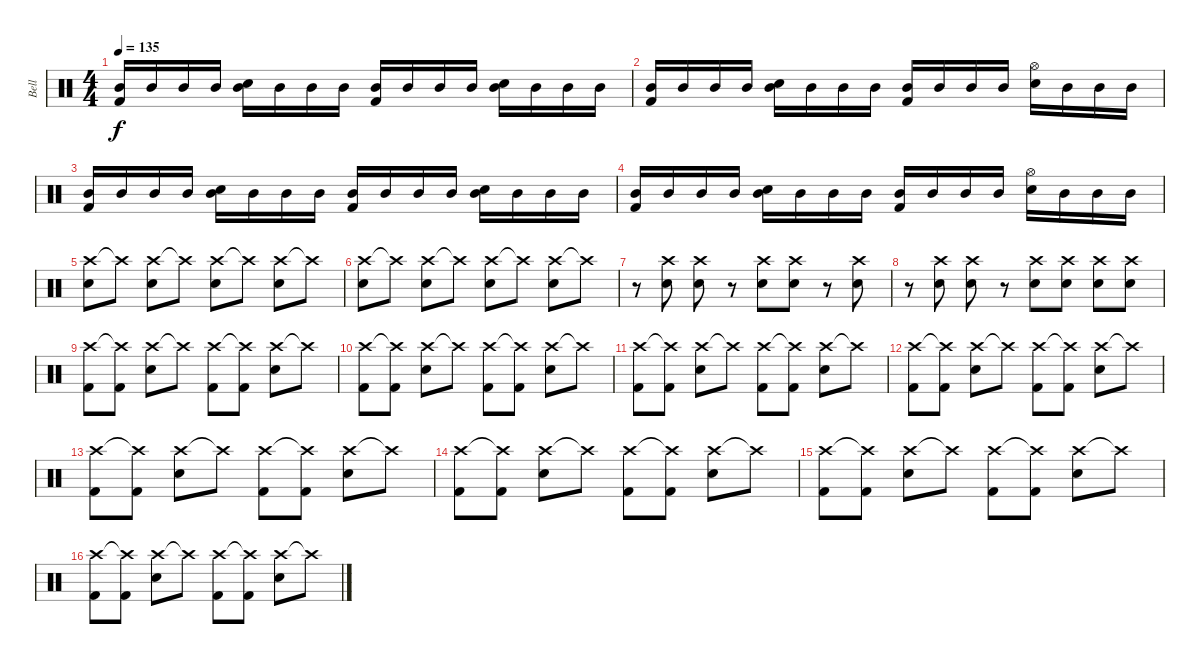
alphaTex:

\track ("Bell" "Bell") {instrument percussion}
\staff {score}
\articulation defaults
\ts (4 4)
\tempo 135
\clef neutral
\ks c
("Mid Tom (hit)" "Kick (hit) 2").16{dy f} "Mid Tom (hit)".16 "Mid Tom (hit)".16 "Mid Tom (hit)".16 ("Mid Tom (hit)" "Snare (hit) 2").16 "Mid Tom (hit)".16 "Mid Tom (hit)".16 "Mid Tom (hit)".16 ("Mid Tom (hit)" "Kick (hit) 2").16 "Mid Tom (hit)".16 "Mid Tom (hit)".16 "Mid Tom (hit)".16 ("Mid Tom (hit)" "Snare (hit) 2").16 "Mid Tom (hit)".16 "Mid Tom (hit)".16 "Mid Tom (hit)".16 |
("Mid Tom (hit)" "Kick (hit) 2").16 "Mid Tom (hit)".16 "Mid Tom (hit)".16 "Mid Tom (hit)".16 ("Mid Tom (hit)" "Snare (hit) 2").16 "Mid Tom (hit)".16 "Mid Tom (hit)".16 "Mid Tom (hit)".16 ("Mid Tom (hit)" "Kick (hit) 2").16 "Mid Tom (hit)".16 "Mid Tom (hit)".16 "Mid Tom (hit)".16 ("Hi-Hat (open)" "Snare (hit) 2").16 "Mid Tom (hit)".16 "Mid Tom (hit)".16 "Mid Tom (hit)".16 |
("Mid Tom (hit)" "Kick (hit) 2").16 "Mid Tom (hit)".16 "Mid Tom (hit)".16 "Mid Tom (hit)".16 ("Mid Tom (hit)" "Snare (hit) 2").16 "Mid Tom (hit)".16 "Mid Tom (hit)".16 "Mid Tom (hit)".16 ("Mid Tom (hit)" "Kick (hit) 2").16 "Mid Tom (hit)".16 "Mid Tom (hit)".16 "Mid Tom (hit)".16 ("Mid Tom (hit)" "Snare (hit) 2").16 "Mid Tom (hit)".16 "Mid Tom (hit)".16 "Mid Tom (hit)".16 |
("Mid Tom (hit)" "Kick (hit) 2").16 "Mid Tom (hit)".16 "Mid Tom (hit)".16 "Mid Tom (hit)".16 ("Mid Tom (hit)" "Snare (hit) 2").16 "Mid Tom (hit)".16 "Mid Tom (hit)".16 "Mid Tom (hit)".16 ("Mid Tom (hit)" "Kick (hit) 2").16 "Mid Tom (hit)".16 "Mid Tom (hit)".16 "Mid Tom (hit)".16 ("Hi-Hat (open)" "Snare (hit) 2").16 "Mid Tom (hit)".16 "Mid Tom (hit)".16 "Mid Tom (hit)".16 |
("Crash high (hit)" "Snare (hit) 2").8 "Crash high (hit)"{t}.8 ("Crash high (hit)" "Snare (hit) 2").8 "Crash high (hit)"{t}.8 ("Crash high (hit)" "Snare (hit) 2").8 "Crash high (hit)"{t}.8 ("Crash high (hit)" "Snare (hit) 2").8 "Crash high (hit)"{t}.8 |
("Crash high (hit)" "Snare (hit) 2").8 "Crash high (hit)"{t}.8 ("Crash high (hit)" "Snare (hit) 2").8 "Crash high (hit)"{t}.8 ("Crash high (hit)" "Snare (hit) 2").8 "Crash high (hit)"{t}.8 ("Crash high (hit)" "Snare (hit) 2").8 "Crash high (hit)"{t}.8 |
r.8 ("Crash high (hit)" "Snare (hit) 2").8 ("Crash high (hit)" "Snare (hit) 2").8 r.8 ("Crash high (hit)" "Snare (hit) 2").8 ("Crash high (hit)" "Snare (hit) 2").8 r.8 ("Crash high (hit)" "Snare (hit) 2").8 |
r.8 ("Crash high (hit)" "Snare (hit) 2").8 ("Crash high (hit)" "Snare (hit) 2").8 r.8 ("Crash high (hit)" "Snare (hit) 2").8 ("Crash high (hit)" "Snare (hit) 2").8 ("Crash high (hit)" "Snare (hit) 2").8 ("Crash high (hit)" "Snare (hit) 2").8 |
("Crash high (hit)" "Kick (hit) 2").8 ("Crash high (hit)"{t} "Kick (hit) 2").8 ("Crash high (hit)" "Snare (hit) 2").8 "Crash high (hit)"{t}.8 ("Crash high (hit)" "Kick (hit) 2").8 ("Crash high (hit)"{t} "Kick (hit) 2").8 ("Crash high (hit)" "Snare (hit) 2").8 "Crash high (hit)"{t}.8 |
("Crash high (hit)" "Kick (hit) 2").8 ("Crash high (hit)"{t} "Kick (hit) 2").8 ("Crash high (hit)" "Snare (hit) 2").8 "Crash high (hit)"{t}.8 ("Crash high (hit)" "Kick (hit) 2").8 ("Crash high (hit)"{t} "Kick (hit) 2").8 ("Crash high (hit)" "Snare (hit) 2").8 "Crash high (hit)"{t}.8 |
("Crash high (hit)" "Kick (hit) 2").8 ("Crash high (hit)"{t} "Kick (hit) 2").8 ("Crash high (hit)" "Snare (hit) 2").8 "Crash high (hit)"{t}.8 ("Crash high (hit)" "Kick (hit) 2").8 ("Crash high (hit)"{t} "Kick (hit) 2").8 ("Crash high (hit)" "Snare (hit) 2").8 "Crash high (hit)"{t}.8 |
("Crash high (hit)" "Kick (hit) 2").8 ("Crash high (hit)"{t} "Kick (hit) 2").8 ("Crash high (hit)" "Snare (hit) 2").8 "Crash high (hit)"{t}.8 ("Crash high (hit)" "Kick (hit) 2").8 ("Crash high (hit)"{t} "Kick (hit) 2").8 ("Crash high (hit)" "Snare (hit) 2").8 "Crash high (hit)"{t}.8 |
("Crash high (hit)" "Kick (hit) 2").8 ("Crash high (hit)"{t} "Kick (hit) 2").8 ("Crash high (hit)" "Snare (hit) 2").8 "Crash high (hit)"{t}.8 ("Crash high (hit)" "Kick (hit) 2").8 ("Crash high (hit)"{t} "Kick (hit) 2").8 ("Crash high (hit)" "Snare (hit) 2").8 "Crash high (hit)"{t}.8 |
("Crash high (hit)" "Kick (hit) 2").8 ("Crash high (hit)"{t} "Kick (hit) 2").8 ("Crash high (hit)" "Snare (hit) 2").8 "Crash high (hit)"{t}.8 ("Crash high (hit)" "Kick (hit) 2").8 ("Crash high (hit)"{t} "Kick (hit) 2").8 ("Crash high (hit)" "Snare (hit) 2").8 "Crash high (hit)"{t}.8 |
("Crash high (hit)" "Kick (hit) 2").8 ("Crash high (hit)"{t} "Kick (hit) 2").8 ("Crash high (hit)" "Snare (hit) 2").8 "Crash high (hit)"{t}.8 ("Crash high (hit)" "Kick (hit) 2").8 ("Crash high (hit)"{t} "Kick (hit) 2").8 ("Crash high (hit)" "Snare (hit) 2").8 "Crash high (hit)"{t}.8 |
("Crash high (hit)" "Kick (hit) 2").8 ("Crash high (hit)"{t} "Kick (hit) 2").8 ("Crash high (hit)" "Snare (hit) 2").8 "Crash high (hit)"{t}.8 ("Crash high (hit)" "Kick (hit) 2").8 ("Crash high (hit)"{t} "Kick (hit) 2").8 ("Crash high (hit)" "Snare (hit) 2").8 "Crash high (hit)"{t}.8
